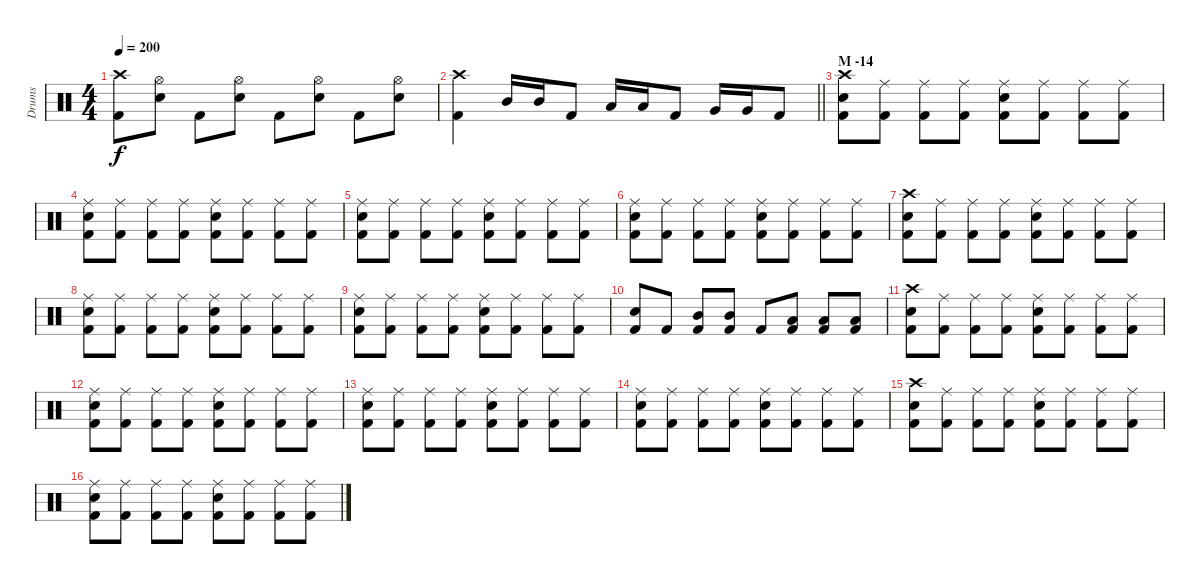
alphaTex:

\track ("Drums" "Drums") {instrument percussion}
\staff {score}
\articulation defaults
\ts (4 4)
\tempo 200
\clef neutral
\ks c
("Crash high (hit)" "Kick (hit) 2").8{dy f} ("Hi-Hat (open)" "Snare (hit) 2").8 "Kick (hit) 2".8 ("Hi-Hat (open)" "Snare (hit) 2").8 "Kick (hit) 2".8 ("Hi-Hat (open)" "Snare (hit) 2").8 "Kick (hit) 2".8 ("Hi-Hat (open)" "Snare (hit) 2").8 |
\barLineRight lightlight
("Crash high (hit)" "Kick (hit) 2").4 "Mid Tom (hit)".16 "Mid Tom (hit)".16 "Kick (hit) 2".8 "Low Tom (hit)".16 "Low Tom (hit)".16 "Kick (hit) 2".8 "Very Low Tom (hit)".16 "Very Low Tom (hit)".16 "Kick (hit) 2".8 |
\section ("" "M -14")
("Crash high (hit)" "Snare (hit) 2" "Kick (hit) 2").8 ("Ride (middle)" "Kick (hit) 2").8 ("Ride (middle)" "Kick (hit) 2").8 ("Ride (middle)" "Kick (hit) 2").8 ("Ride (middle)" "Snare (hit) 2" "Kick (hit) 2").8 ("Ride (middle)" "Kick (hit) 2").8 ("Ride (middle)" "Kick (hit) 2").8 ("Ride (middle)" "Kick (hit) 2").8 |
("Ride (middle)" "Snare (hit) 2" "Kick (hit) 2").8 ("Ride (middle)" "Kick (hit) 2").8 ("Ride (middle)" "Kick (hit) 2").8 ("Ride (middle)" "Kick (hit) 2").8 ("Ride (middle)" "Snare (hit) 2" "Kick (hit) 2").8 ("Ride (middle)" "Kick (hit) 2").8 ("Ride (middle)" "Kick (hit) 2").8 ("Ride (middle)" "Kick (hit) 2").8 |
("Ride (middle)" "Snare (hit) 2" "Kick (hit) 2").8 ("Ride (middle)" "Kick (hit) 2").8 ("Ride (middle)" "Kick (hit) 2").8 ("Ride (middle)" "Kick (hit) 2").8 ("Ride (middle)" "Snare (hit) 2" "Kick (hit) 2").8 ("Ride (middle)" "Kick (hit) 2").8 ("Ride (middle)" "Kick (hit) 2").8 ("Ride (middle)" "Kick (hit) 2").8 |
("Ride (middle)" "Snare (hit) 2" "Kick (hit) 2").8 ("Ride (middle)" "Kick (hit) 2").8 ("Ride (middle)" "Kick (hit) 2").8 ("Ride (middle)" "Kick (hit) 2").8 ("Ride (middle)" "Snare (hit) 2" "Kick (hit) 2").8 ("Ride (middle)" "Kick (hit) 2").8 ("Ride (middle)" "Kick (hit) 2").8 ("Ride (middle)" "Kick (hit) 2").8 |
("Crash high (hit)" "Snare (hit) 2" "Kick (hit) 2").8 ("Ride (middle)" "Kick (hit) 2").8 ("Ride (middle)" "Kick (hit) 2").8 ("Ride (middle)" "Kick (hit) 2").8 ("Ride (middle)" "Snare (hit) 2" "Kick (hit) 2").8 ("Ride (middle)" "Kick (hit) 2").8 ("Ride (middle)" "Kick (hit) 2").8 ("Ride (middle)" "Kick (hit) 2").8 |
("Ride (middle)" "Snare (hit) 2" "Kick (hit) 2").8 ("Ride (middle)" "Kick (hit) 2").8 ("Ride (middle)" "Kick (hit) 2").8 ("Ride (middle)" "Kick (hit) 2").8 ("Ride (middle)" "Snare (hit) 2" "Kick (hit) 2").8 ("Ride (middle)" "Kick (hit) 2").8 ("Ride (middle)" "Kick (hit) 2").8 ("Ride (middle)" "Kick (hit) 2").8 |
("Ride (middle)" "Snare (hit) 2" "Kick (hit) 2").8 ("Ride (middle)" "Kick (hit) 2").8 ("Ride (middle)" "Kick (hit) 2").8 ("Ride (middle)" "Kick (hit) 2").8 ("Ride (middle)" "Snare (hit) 2" "Kick (hit) 2").8 ("Ride (middle)" "Kick (hit) 2").8 ("Ride (middle)" "Kick (hit) 2").8 ("Ride (middle)" "Kick (hit) 2").8 |
("Snare (hit) 2" "Kick (hit) 2").8 "Kick (hit) 2".8 ("Mid Tom (hit)" "Kick (hit) 2").8 ("Mid Tom (hit)" "Kick (hit) 2").8 "Kick (hit) 2".8 ("Low Tom (hit)" "Kick (hit) 2").8 ("Low Tom (hit)" "Kick (hit) 2").8 ("Low Tom (hit)" "Kick (hit) 2").8 |
("Crash high (hit)" "Snare (hit) 2" "Kick (hit) 2").8 ("Ride (middle)" "Kick (hit) 2").8 ("Ride (middle)" "Kick (hit) 2").8 ("Ride (middle)" "Kick (hit) 2").8 ("Ride (middle)" "Snare (hit) 2" "Kick (hit) 2").8 ("Ride (middle)" "Kick (hit) 2").8 ("Ride (middle)" "Kick (hit) 2").8 ("Ride (middle)" "Kick (hit) 2").8 |
("Ride (middle)" "Snare (hit) 2" "Kick (hit) 2").8 ("Ride (middle)" "Kick (hit) 2").8 ("Ride (middle)" "Kick (hit) 2").8 ("Ride (middle)" "Kick (hit) 2").8 ("Ride (middle)" "Snare (hit) 2" "Kick (hit) 2").8 ("Ride (middle)" "Kick (hit) 2").8 ("Ride (middle)" "Kick (hit) 2").8 ("Ride (middle)" "Kick (hit) 2").8 |
("Ride (middle)" "Snare (hit) 2" "Kick (hit) 2").8 ("Ride (middle)" "Kick (hit) 2").8 ("Ride (middle)" "Kick (hit) 2").8 ("Ride (middle)" "Kick (hit) 2").8 ("Ride (middle)" "Snare (hit) 2" "Kick (hit) 2").8 ("Ride (middle)" "Kick (hit) 2").8 ("Ride (middle)" "Kick (hit) 2").8 ("Ride (middle)" "Kick (hit) 2").8 |
("Ride (middle)" "Snare (hit) 2" "Kick (hit) 2").8 ("Ride (middle)" "Kick (hit) 2").8 ("Ride (middle)" "Kick (hit) 2").8 ("Ride (middle)" "Kick (hit) 2").8 ("Ride (middle)" "Snare (hit) 2" "Kick (hit) 2").8 ("Ride (middle)" "Kick (hit) 2").8 ("Ride (middle)" "Kick (hit) 2").8 ("Ride (middle)" "Kick (hit) 2").8 |
("Crash high (hit)" "Snare (hit) 2" "Kick (hit) 2").8 ("Ride (middle)" "Kick (hit) 2").8 ("Ride (middle)" "Kick (hit) 2").8 ("Ride (middle)" "Kick (hit) 2").8 ("Ride (middle)" "Snare (hit) 2" "Kick (hit) 2").8 ("Ride (middle)" "Kick (hit) 2").8 ("Ride (middle)" "Kick (hit) 2").8 ("Ride (middle)" "Kick (hit) 2").8 |
("Ride (middle)" "Snare (hit) 2" "Kick (hit) 2").8 ("Ride (middle)" "Kick (hit) 2").8 ("Ride (middle)" "Kick (hit) 2").8 ("Ride (middle)" "Kick (hit) 2").8 ("Ride (middle)" "Snare (hit) 2" "Kick (hit) 2").8 ("Ride (middle)" "Kick (hit) 2").8 ("Ride (middle)" "Kick (hit) 2").8 ("Ride (middle)" "Kick (hit) 2").8
